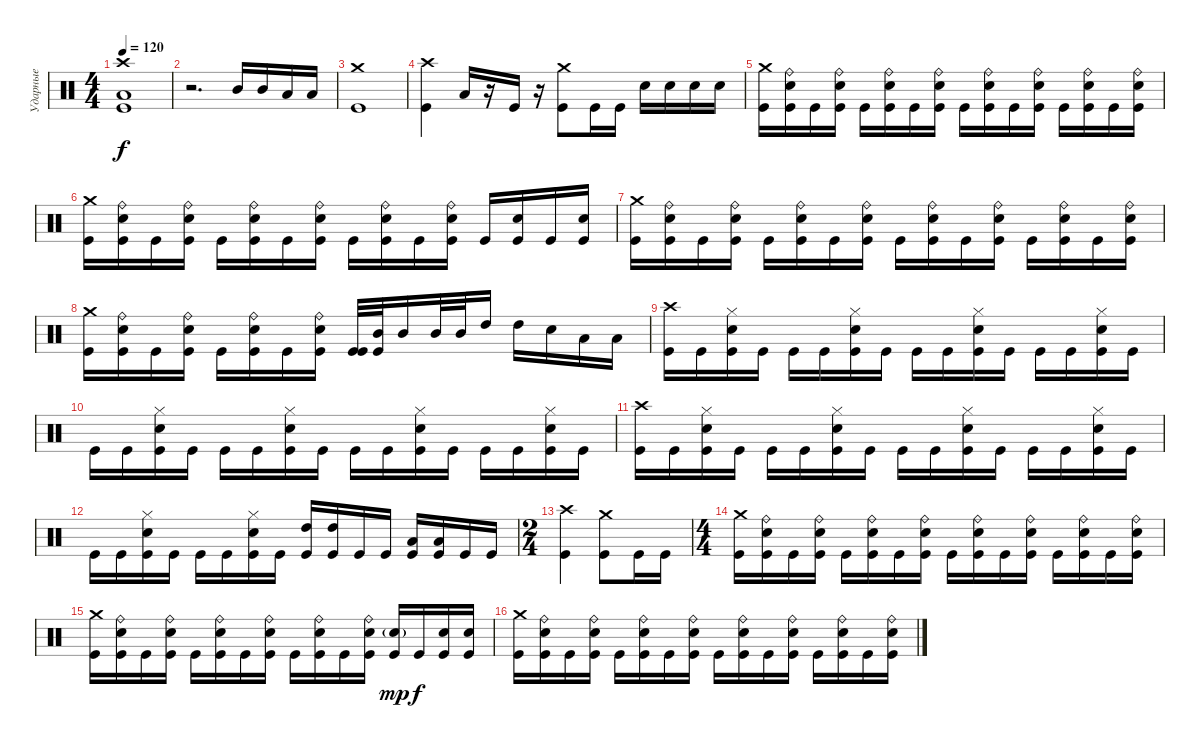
\track ("Ударные" "Ударные") {instrument percussion}
\staff {score}
\articulation defaults
\ts (4 4)
\tempo 120
\clef neutral
\ks c
("Kick (hit)" "Low Tom (hit)" "Crash high (hit)").1{dy f} |
r.2{d} "Mid Tom (hit)".16 "Mid Tom (hit)".16 "Low Tom (hit)".16 "Low Tom (hit)".16 |
("Crash medium (hit)" "Kick (hit)").1 |
("Crash high (hit)" "Kick (hit)").4 "Low Tom (hit)".16 r.16 "Kick (hit)".16 r.16 ("Crash medium (hit)" "Kick (hit)").8 "Kick (hit)".16 "Kick (hit)".16 "Electric Snare (hit)".16 "Electric Snare (hit)".16 "Electric Snare (hit)".16 "Electric Snare (hit)".16 |
("Crash medium (hit)" "Kick (hit)").16 ("Ride (bell)" "Electric Snare (hit)" "Kick (hit)").16 "Kick (hit)".16 ("Ride (bell)" "Electric Snare (hit)" "Kick (hit)").16 "Kick (hit)".16 ("Ride (bell)" "Electric Snare (hit)" "Kick (hit)").16 "Kick (hit)".16 ("Ride (bell)" "Electric Snare (hit)" "Kick (hit)").16 "Kick (hit)".16 ("Ride (bell)" "Electric Snare (hit)" "Kick (hit)").16 "Kick (hit)".16 ("Ride (bell)" "Electric Snare (hit)" "Kick (hit)").16 "Kick (hit)".16 ("Ride (bell)" "Electric Snare (hit)" "Kick (hit)").16 "Kick (hit)".16 ("Ride (bell)" "Electric Snare (hit)" "Kick (hit)").16 |
("Crash medium (hit)" "Kick (hit)").16 ("Ride (bell)" "Electric Snare (hit)" "Kick (hit)").16 "Kick (hit)".16 ("Ride (bell)" "Electric Snare (hit)" "Kick (hit)").16 "Kick (hit)".16 ("Ride (bell)" "Electric Snare (hit)" "Kick (hit)").16 "Kick (hit)".16 ("Ride (bell)" "Electric Snare (hit)" "Kick (hit)").16 "Kick (hit)".16 ("Ride (bell)" "Electric Snare (hit)" "Kick (hit)").16 "Kick (hit)".16 ("Ride (bell)" "Electric Snare (hit)" "Kick (hit)").16 "Kick (hit)".16 ("Electric Snare (hit)" "Kick (hit)").16 "Kick (hit)".16 ("Electric Snare (hit)" "Kick (hit)").16 |
("Crash medium (hit)" "Kick (hit)").16 ("Ride (bell)" "Electric Snare (hit)" "Kick (hit)").16 "Kick (hit)".16 ("Ride (bell)" "Electric Snare (hit)" "Kick (hit)").16 "Kick (hit)".16 ("Ride (bell)" "Electric Snare (hit)" "Kick (hit)").16 "Kick (hit)".16 ("Ride (bell)" "Electric Snare (hit)" "Kick (hit)").16 "Kick (hit)".16 ("Ride (bell)" "Electric Snare (hit)" "Kick (hit)").16 "Kick (hit)".16 ("Ride (bell)" "Electric Snare (hit)" "Kick (hit)").16 "Kick (hit)".16 ("Ride (bell)" "Electric Snare (hit)" "Kick (hit)").16 "Kick (hit)".16 ("Ride (bell)" "Electric Snare (hit)" "Kick (hit)").16 |
("Crash medium (hit)" "Kick (hit)").16 ("Ride (bell)" "Electric Snare (hit)" "Kick (hit)").16 "Kick (hit)".16 ("Ride (bell)" "Electric Snare (hit)" "Kick (hit)").16 "Kick (hit)".16 ("Ride (bell)" "Electric Snare (hit)" "Kick (hit)").16 "Kick (hit)".16 ("Ride (bell)" "Electric Snare (hit)" "Kick (hit)").16 ("Kick (hit)" "Kick (hit)").32 ("Mid Tom (hit)" "Kick (hit)").32 "Mid Tom (hit)".16 "Mid Tom (hit)".32 "Mid Tom (hit)".32 "High Tom (hit)".16 "High Tom (hit)".16 "Electric Snare (hit)".16 "Low Tom (hit)".16 "Low Tom (hit)".16 |
("Crash high (hit)" "Kick (hit)").16 "Kick (hit)".16 ("Hi-Hat (closed)" "Electric Snare (hit)" "Kick (hit)").16 "Kick (hit)".16 "Kick (hit)".16 "Kick (hit)".16 ("Hi-Hat (closed)" "Electric Snare (hit)" "Kick (hit)").16 "Kick (hit)".16 "Kick (hit)".16 "Kick (hit)".16 ("Hi-Hat (closed)" "Electric Snare (hit)" "Kick (hit)").16 "Kick (hit)".16 "Kick (hit)".16 "Kick (hit)".16 ("Hi-Hat (closed)" "Electric Snare (hit)" "Kick (hit)").16 "Kick (hit)".16 |
"Kick (hit)".16 "Kick (hit)".16 ("Hi-Hat (closed)" "Electric Snare (hit)" "Kick (hit)").16 "Kick (hit)".16 "Kick (hit)".16 "Kick (hit)".16 ("Hi-Hat (closed)" "Electric Snare (hit)" "Kick (hit)").16 "Kick (hit)".16 "Kick (hit)".16 "Kick (hit)".16 ("Hi-Hat (closed)" "Electric Snare (hit)" "Kick (hit)").16 "Kick (hit)".16 "Kick (hit)".16 "Kick (hit)".16 ("Hi-Hat (closed)" "Electric Snare (hit)" "Kick (hit)").16 "Kick (hit)".16 |
("Crash high (hit)" "Kick (hit)").16 "Kick (hit)".16 ("Hi-Hat (closed)" "Electric Snare (hit)" "Kick (hit)").16 "Kick (hit)".16 "Kick (hit)".16 "Kick (hit)".16 ("Hi-Hat (closed)" "Electric Snare (hit)" "Kick (hit)").16 "Kick (hit)".16 "Kick (hit)".16 "Kick (hit)".16 ("Hi-Hat (closed)" "Electric Snare (hit)" "Kick (hit)").16 "Kick (hit)".16 "Kick (hit)".16 "Kick (hit)".16 ("Hi-Hat (closed)" "Electric Snare (hit)" "Kick (hit)").16 "Kick (hit)".16 |
"Kick (hit)".16 "Kick (hit)".16 ("Hi-Hat (closed)" "Electric Snare (hit)" "Kick (hit)").16 "Kick (hit)".16 "Kick (hit)".16 "Kick (hit)".16 ("Hi-Hat (closed)" "Electric Snare (hit)" "Kick (hit)").16 "Kick (hit)".16 ("High Tom (hit)" "Kick (hit)").16 ("High Tom (hit)" "Kick (hit)").16 "Kick (hit)".16 "Kick (hit)".16 ("Low Tom (hit)" "Kick (hit)").16 ("Low Tom (hit)" "Kick (hit)").16 "Kick (hit)".16 "Kick (hit)".16 |
\ts (2 4)
("Crash high (hit)" "Kick (hit)").4 ("Crash medium (hit)" "Kick (hit)").8 "Kick (hit)".16 "Kick (hit)".16 |
\ts (4 4)
("Crash medium (hit)" "Kick (hit)").16 ("Ride (bell)" "Electric Snare (hit)" "Kick (hit)").16 "Kick (hit)".16 ("Ride (bell)" "Electric Snare (hit)" "Kick (hit)").16 "Kick (hit)".16 ("Ride (bell)" "Electric Snare (hit)" "Kick (hit)").16 "Kick (hit)".16 ("Ride (bell)" "Electric Snare (hit)" "Kick (hit)").16 "Kick (hit)".16 ("Ride (bell)" "Electric Snare (hit)" "Kick (hit)").16 "Kick (hit)".16 ("Ride (bell)" "Electric Snare (hit)" "Kick (hit)").16 "Kick (hit)".16 ("Ride (bell)" "Electric Snare (hit)" "Kick (hit)").16 "Kick (hit)".16 ("Ride (bell)" "Electric Snare (hit)" "Kick (hit)").16 |
("Crash medium (hit)" "Kick (hit)").16 ("Ride (bell)" "Electric Snare (hit)" "Kick (hit)").16 "Kick (hit)".16 ("Ride (bell)" "Electric Snare (hit)" "Kick (hit)").16 "Kick (hit)".16 ("Ride (bell)" "Electric Snare (hit)" "Kick (hit)").16 "Kick (hit)".16 ("Ride (bell)" "Electric Snare (hit)" "Kick (hit)").16 "Kick (hit)".16 ("Ride (bell)" "Electric Snare (hit)" "Kick (hit)").16 "Kick (hit)".16 ("Ride (bell)" "Electric Snare (hit)" "Kick (hit)").16 ("Electric Snare (hit)"{g} "Kick (hit)").16{dy mp} "Kick (hit)".16{dy f} ("Electric Snare (hit)" "Kick (hit)").16 ("Electric Snare (hit)" "Kick (hit)").16 |
("Crash medium (hit)" "Kick (hit)").16 ("Ride (bell)" "Electric Snare (hit)" "Kick (hit)").16 "Kick (hit)".16 ("Ride (bell)" "Electric Snare (hit)" "Kick (hit)").16 "Kick (hit)".16 ("Ride (bell)" "Electric Snare (hit)" "Kick (hit)").16 "Kick (hit)".16 ("Ride (bell)" "Electric Snare (hit)" "Kick (hit)").16 "Kick (hit)".16 ("Ride (bell)" "Electric Snare (hit)" "Kick (hit)").16 "Kick (hit)".16 ("Ride (bell)" "Electric Snare (hit)" "Kick (hit)").16 "Kick (hit)".16 ("Ride (bell)" "Electric Snare (hit)" "Kick (hit)").16 "Kick (hit)".16 ("Ride (bell)" "Electric Snare (hit)" "Kick (hit)").16
